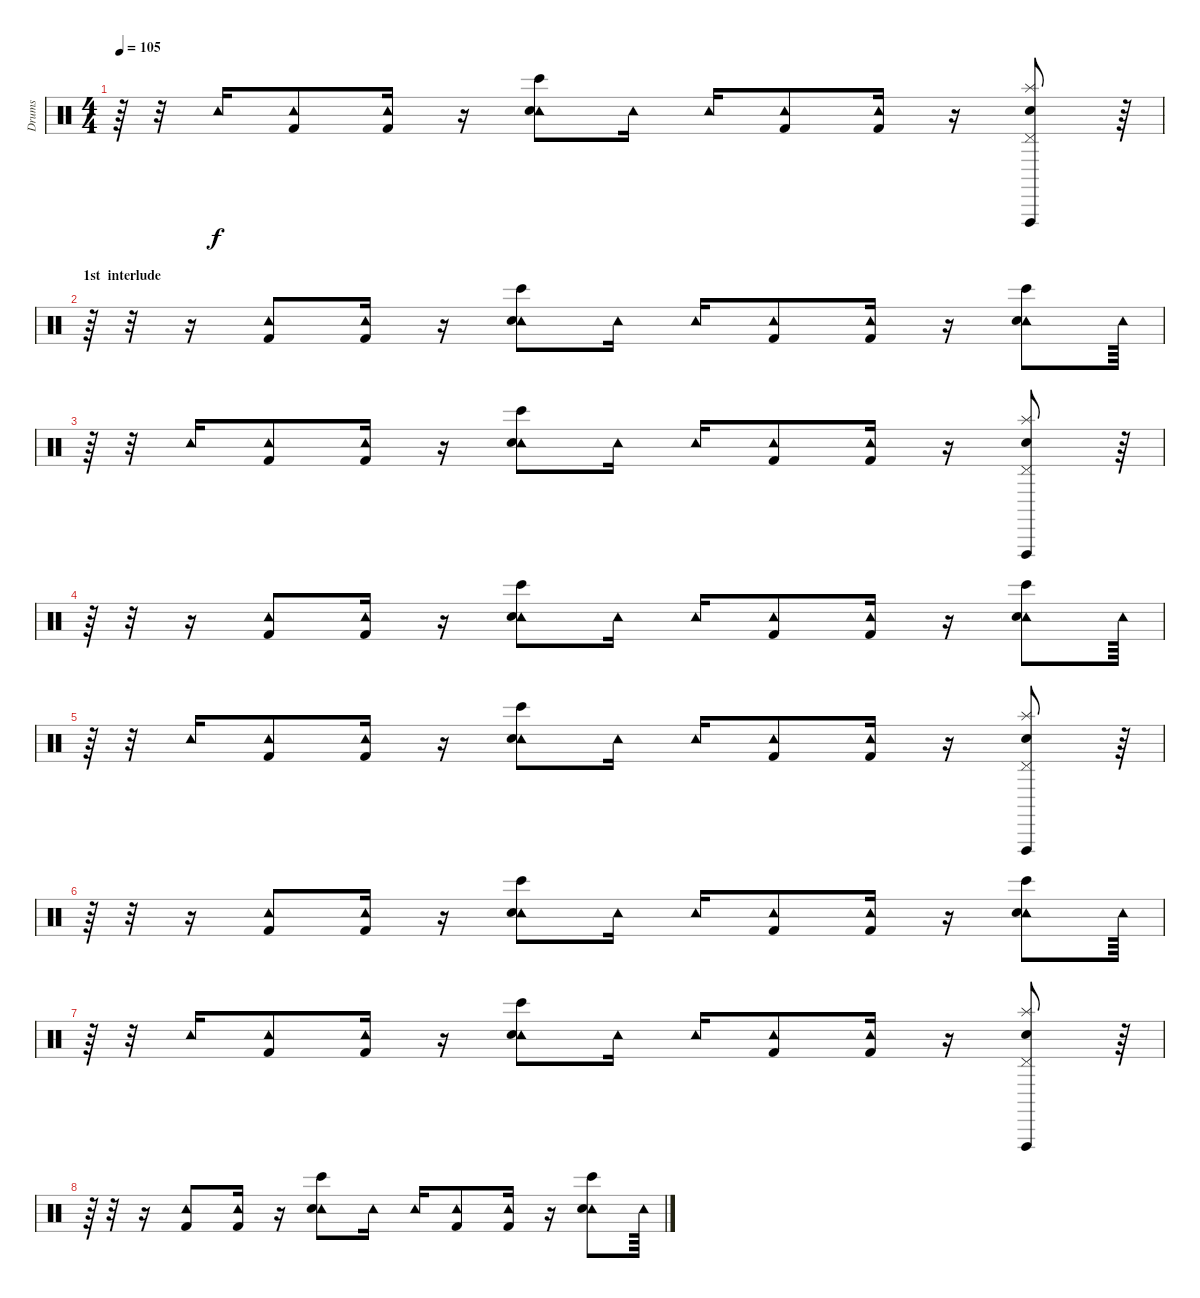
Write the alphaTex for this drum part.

\track ("Drums" "Drums") {instrument percussion}
\staff {score}
\articulation defaults
\ts (4 4)
\tempo 105
\clef neutral
\ks c
r.64{dy f} r.32 "Tambourine (hit)".16 ("Tambourine (hit)" "Kick (hit) 2").8 ("Tambourine (hit)" "Kick (hit) 2").16 r.16 ("Tambourine (hit)" "Electric Snare (hit)" "Bongo High (hit)").8 "Tambourine (hit)".16 "Tambourine (hit)".16 ("Tambourine (hit)" "Kick (hit) 2").8 ("Tambourine (hit)" "Kick (hit) 2").16 r.16 ("Splash (hit)" "Electric Snare (hit)" "Pedal Hi-Hat (hit)" "Vibraslap (hit)").8 r.64 |
\section ("" "1st  interlude")
r.64 r.32 r.16 ("Tambourine (hit)" "Kick (hit) 2").8 ("Tambourine (hit)" "Kick (hit) 2").16 r.16 ("Tambourine (hit)" "Electric Snare (hit)" "Bongo High (hit)").8 "Tambourine (hit)".16 "Tambourine (hit)".16 ("Tambourine (hit)" "Kick (hit) 2").8 ("Tambourine (hit)" "Kick (hit) 2").16 r.16 ("Tambourine (hit)" "Electric Snare (hit)" "Bongo High (hit)").8 "Tambourine (hit)".64 |
r.64 r.32 "Tambourine (hit)".16 ("Tambourine (hit)" "Kick (hit) 2").8 ("Tambourine (hit)" "Kick (hit) 2").16 r.16 ("Tambourine (hit)" "Electric Snare (hit)" "Bongo High (hit)").8 "Tambourine (hit)".16 "Tambourine (hit)".16 ("Tambourine (hit)" "Kick (hit) 2").8 ("Tambourine (hit)" "Kick (hit) 2").16 r.16 ("Splash (hit)" "Electric Snare (hit)" "Pedal Hi-Hat (hit)" "Vibraslap (hit)").8 r.64 |
r.64 r.32 r.16 ("Tambourine (hit)" "Kick (hit) 2").8 ("Tambourine (hit)" "Kick (hit) 2").16 r.16 ("Tambourine (hit)" "Electric Snare (hit)" "Bongo High (hit)").8 "Tambourine (hit)".16 "Tambourine (hit)".16 ("Tambourine (hit)" "Kick (hit) 2").8 ("Tambourine (hit)" "Kick (hit) 2").16 r.16 ("Tambourine (hit)" "Electric Snare (hit)" "Bongo High (hit)").8 "Tambourine (hit)".64 |
r.64 r.32 "Tambourine (hit)".16 ("Tambourine (hit)" "Kick (hit) 2").8 ("Tambourine (hit)" "Kick (hit) 2").16 r.16 ("Tambourine (hit)" "Electric Snare (hit)" "Bongo High (hit)").8 "Tambourine (hit)".16 "Tambourine (hit)".16 ("Tambourine (hit)" "Kick (hit) 2").8 ("Tambourine (hit)" "Kick (hit) 2").16 r.16 ("Splash (hit)" "Electric Snare (hit)" "Pedal Hi-Hat (hit)" "Vibraslap (hit)").8 r.64 |
r.64 r.32 r.16 ("Tambourine (hit)" "Kick (hit) 2").8 ("Tambourine (hit)" "Kick (hit) 2").16 r.16 ("Tambourine (hit)" "Electric Snare (hit)" "Bongo High (hit)").8 "Tambourine (hit)".16 "Tambourine (hit)".16 ("Tambourine (hit)" "Kick (hit) 2").8 ("Tambourine (hit)" "Kick (hit) 2").16 r.16 ("Tambourine (hit)" "Electric Snare (hit)" "Bongo High (hit)").8 "Tambourine (hit)".64 |
r.64 r.32 "Tambourine (hit)".16 ("Tambourine (hit)" "Kick (hit) 2").8 ("Tambourine (hit)" "Kick (hit) 2").16 r.16 ("Tambourine (hit)" "Electric Snare (hit)" "Bongo High (hit)").8 "Tambourine (hit)".16 "Tambourine (hit)".16 ("Tambourine (hit)" "Kick (hit) 2").8 ("Tambourine (hit)" "Kick (hit) 2").16 r.16 ("Splash (hit)" "Electric Snare (hit)" "Pedal Hi-Hat (hit)" "Vibraslap (hit)").8 r.64 |
r.64 r.32 r.16 ("Tambourine (hit)" "Kick (hit) 2").8 ("Tambourine (hit)" "Kick (hit) 2").16 r.16 ("Tambourine (hit)" "Electric Snare (hit)" "Bongo High (hit)").8 "Tambourine (hit)".16 "Tambourine (hit)".16 ("Tambourine (hit)" "Kick (hit) 2").8 ("Tambourine (hit)" "Kick (hit) 2").16 r.16 ("Tambourine (hit)" "Electric Snare (hit)" "Bongo High (hit)").8 "Tambourine (hit)".64
